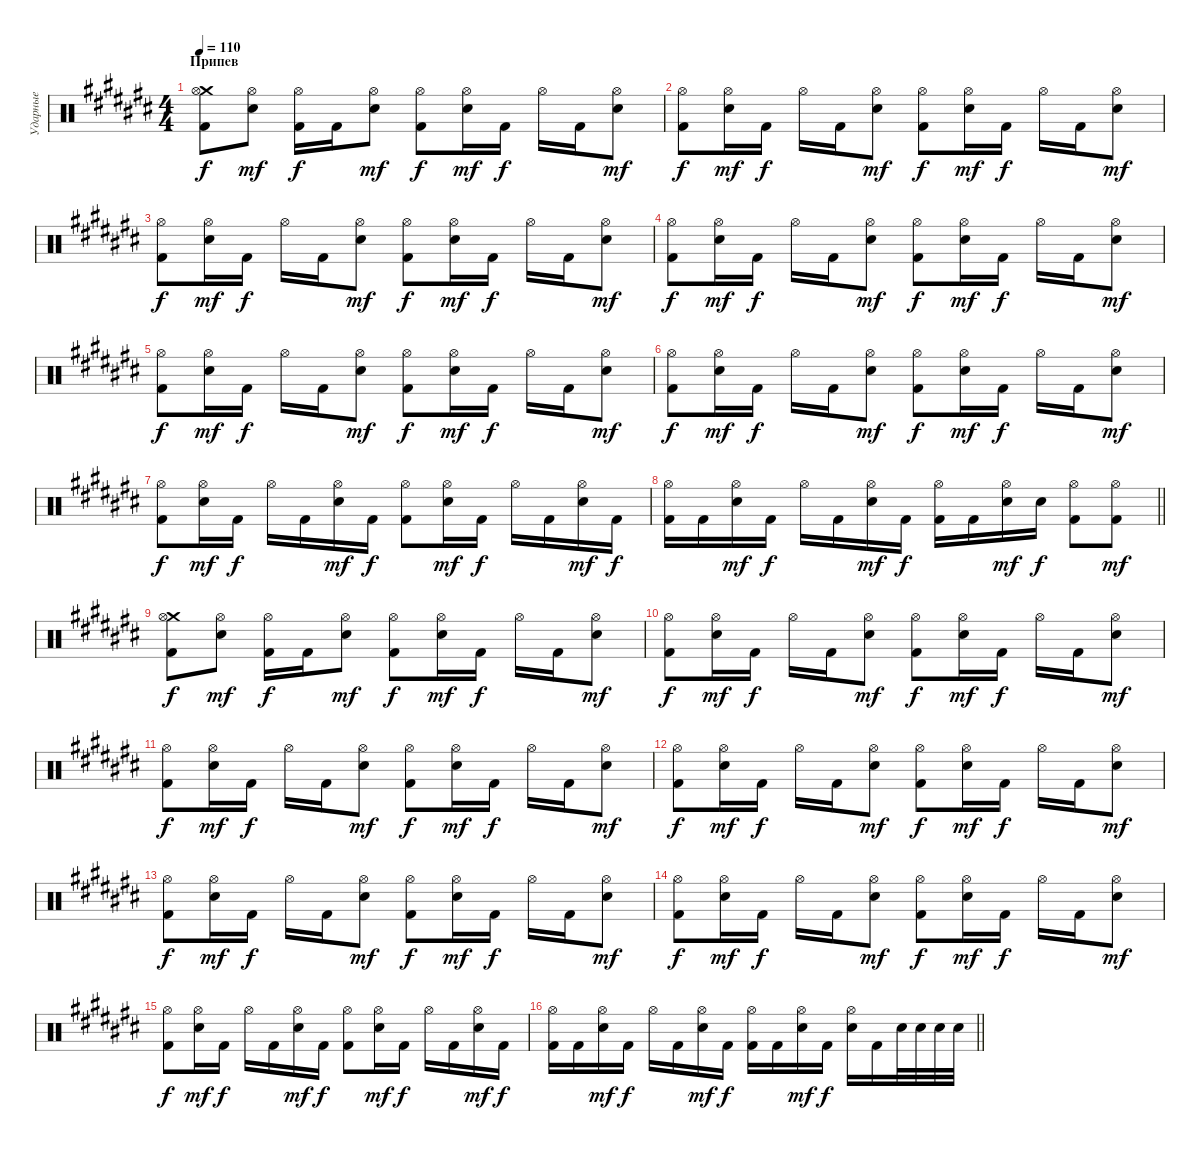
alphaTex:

\track ("Ударные" "Ударные") {instrument percussion}
\staff {score}
\articulation defaults
\ts (4 4)
\section ("" "Припев")
\tempo 110
\clef neutral
\ks a#minor
("Crash medium (hit)" "Kick (hit) 2" "Hi-Hat (open)").8{dy f} ("Electric Snare (hit)" "Hi-Hat (open)").8{dy mf} ("Kick (hit) 2" "Hi-Hat (open)").16{dy f} "Kick (hit) 2".16 ("Electric Snare (hit)" "Hi-Hat (open)").8{dy mf} ("Kick (hit) 2" "Hi-Hat (open)").8{dy f} ("Electric Snare (hit)" "Hi-Hat (open)").16{dy mf} "Kick (hit) 2".16{dy f} "Hi-Hat (open)".16 "Kick (hit) 2".16 ("Electric Snare (hit)" "Hi-Hat (open)").8{dy mf} |
("Kick (hit) 2" "Hi-Hat (open)").8{dy f} ("Electric Snare (hit)" "Hi-Hat (open)").16{dy mf} "Kick (hit) 2".16{dy f} "Hi-Hat (open)".16 "Kick (hit) 2".16 ("Electric Snare (hit)" "Hi-Hat (open)").8{dy mf} ("Kick (hit) 2" "Hi-Hat (open)").8{dy f} ("Electric Snare (hit)" "Hi-Hat (open)").16{dy mf} "Kick (hit) 2".16{dy f} "Hi-Hat (open)".16 "Kick (hit) 2".16 ("Electric Snare (hit)" "Hi-Hat (open)").8{dy mf} |
("Kick (hit) 2" "Hi-Hat (open)").8{dy f} ("Electric Snare (hit)" "Hi-Hat (open)").16{dy mf} "Kick (hit) 2".16{dy f} "Hi-Hat (open)".16 "Kick (hit) 2".16 ("Electric Snare (hit)" "Hi-Hat (open)").8{dy mf} ("Kick (hit) 2" "Hi-Hat (open)").8{dy f} ("Electric Snare (hit)" "Hi-Hat (open)").16{dy mf} "Kick (hit) 2".16{dy f} "Hi-Hat (open)".16 "Kick (hit) 2".16 ("Electric Snare (hit)" "Hi-Hat (open)").8{dy mf} |
("Kick (hit) 2" "Hi-Hat (open)").8{dy f} ("Electric Snare (hit)" "Hi-Hat (open)").16{dy mf} "Kick (hit) 2".16{dy f} "Hi-Hat (open)".16 "Kick (hit) 2".16 ("Electric Snare (hit)" "Hi-Hat (open)").8{dy mf} ("Kick (hit) 2" "Hi-Hat (open)").8{dy f} ("Electric Snare (hit)" "Hi-Hat (open)").16{dy mf} "Kick (hit) 2".16{dy f} "Hi-Hat (open)".16 "Kick (hit) 2".16 ("Electric Snare (hit)" "Hi-Hat (open)").8{dy mf} |
("Kick (hit) 2" "Hi-Hat (open)").8{dy f} ("Electric Snare (hit)" "Hi-Hat (open)").16{dy mf} "Kick (hit) 2".16{dy f} "Hi-Hat (open)".16 "Kick (hit) 2".16 ("Electric Snare (hit)" "Hi-Hat (open)").8{dy mf} ("Kick (hit) 2" "Hi-Hat (open)").8{dy f} ("Electric Snare (hit)" "Hi-Hat (open)").16{dy mf} "Kick (hit) 2".16{dy f} "Hi-Hat (open)".16 "Kick (hit) 2".16 ("Electric Snare (hit)" "Hi-Hat (open)").8{dy mf} |
("Kick (hit) 2" "Hi-Hat (open)").8{dy f} ("Electric Snare (hit)" "Hi-Hat (open)").16{dy mf} "Kick (hit) 2".16{dy f} "Hi-Hat (open)".16 "Kick (hit) 2".16 ("Electric Snare (hit)" "Hi-Hat (open)").8{dy mf} ("Kick (hit) 2" "Hi-Hat (open)").8{dy f} ("Electric Snare (hit)" "Hi-Hat (open)").16{dy mf} "Kick (hit) 2".16{dy f} "Hi-Hat (open)".16 "Kick (hit) 2".16 ("Electric Snare (hit)" "Hi-Hat (open)").8{dy mf} |
("Kick (hit) 2" "Hi-Hat (open)").8{dy f} ("Electric Snare (hit)" "Hi-Hat (open)").16{dy mf} "Kick (hit) 2".16{dy f} "Hi-Hat (open)".16 "Kick (hit) 2".16 ("Electric Snare (hit)" "Hi-Hat (open)").16{dy mf} "Kick (hit) 2".16{dy f} ("Kick (hit) 2" "Hi-Hat (open)").8 ("Electric Snare (hit)" "Hi-Hat (open)").16{dy mf} "Kick (hit) 2".16{dy f} "Hi-Hat (open)".16 "Kick (hit) 2".16 ("Electric Snare (hit)" "Hi-Hat (open)").16{dy mf} "Kick (hit) 2".16{dy f} |
\barLineRight lightlight
("Kick (hit) 2" "Hi-Hat (open)").16 "Kick (hit) 2".16 ("Electric Snare (hit)" "Hi-Hat (open)").16{dy mf} "Kick (hit) 2".16{dy f} "Hi-Hat (open)".16 "Kick (hit) 2".16 ("Electric Snare (hit)" "Hi-Hat (open)").16{dy mf} "Kick (hit) 2".16{dy f} ("Kick (hit) 2" "Hi-Hat (open)").16 "Kick (hit) 2".16 ("Electric Snare (hit)" "Hi-Hat (open)").16{dy mf} "Electric Snare (hit)".16{dy f} ("Kick (hit) 2" "Hi-Hat (open)").8 ("Kick (hit) 2" "Hi-Hat (open)").8{dy mf} |
("Crash medium (hit)" "Kick (hit) 2" "Hi-Hat (open)").8{dy f} ("Electric Snare (hit)" "Hi-Hat (open)").8{dy mf} ("Kick (hit) 2" "Hi-Hat (open)").16{dy f} "Kick (hit) 2".16 ("Electric Snare (hit)" "Hi-Hat (open)").8{dy mf} ("Kick (hit) 2" "Hi-Hat (open)").8{dy f} ("Electric Snare (hit)" "Hi-Hat (open)").16{dy mf} "Kick (hit) 2".16{dy f} "Hi-Hat (open)".16 "Kick (hit) 2".16 ("Electric Snare (hit)" "Hi-Hat (open)").8{dy mf} |
("Kick (hit) 2" "Hi-Hat (open)").8{dy f} ("Electric Snare (hit)" "Hi-Hat (open)").16{dy mf} "Kick (hit) 2".16{dy f} "Hi-Hat (open)".16 "Kick (hit) 2".16 ("Electric Snare (hit)" "Hi-Hat (open)").8{dy mf} ("Kick (hit) 2" "Hi-Hat (open)").8{dy f} ("Electric Snare (hit)" "Hi-Hat (open)").16{dy mf} "Kick (hit) 2".16{dy f} "Hi-Hat (open)".16 "Kick (hit) 2".16 ("Electric Snare (hit)" "Hi-Hat (open)").8{dy mf} |
("Kick (hit) 2" "Hi-Hat (open)").8{dy f} ("Electric Snare (hit)" "Hi-Hat (open)").16{dy mf} "Kick (hit) 2".16{dy f} "Hi-Hat (open)".16 "Kick (hit) 2".16 ("Electric Snare (hit)" "Hi-Hat (open)").8{dy mf} ("Kick (hit) 2" "Hi-Hat (open)").8{dy f} ("Electric Snare (hit)" "Hi-Hat (open)").16{dy mf} "Kick (hit) 2".16{dy f} "Hi-Hat (open)".16 "Kick (hit) 2".16 ("Electric Snare (hit)" "Hi-Hat (open)").8{dy mf} |
("Kick (hit) 2" "Hi-Hat (open)").8{dy f} ("Electric Snare (hit)" "Hi-Hat (open)").16{dy mf} "Kick (hit) 2".16{dy f} "Hi-Hat (open)".16 "Kick (hit) 2".16 ("Electric Snare (hit)" "Hi-Hat (open)").8{dy mf} ("Kick (hit) 2" "Hi-Hat (open)").8{dy f} ("Electric Snare (hit)" "Hi-Hat (open)").16{dy mf} "Kick (hit) 2".16{dy f} "Hi-Hat (open)".16 "Kick (hit) 2".16 ("Electric Snare (hit)" "Hi-Hat (open)").8{dy mf} |
("Kick (hit) 2" "Hi-Hat (open)").8{dy f} ("Electric Snare (hit)" "Hi-Hat (open)").16{dy mf} "Kick (hit) 2".16{dy f} "Hi-Hat (open)".16 "Kick (hit) 2".16 ("Electric Snare (hit)" "Hi-Hat (open)").8{dy mf} ("Kick (hit) 2" "Hi-Hat (open)").8{dy f} ("Electric Snare (hit)" "Hi-Hat (open)").16{dy mf} "Kick (hit) 2".16{dy f} "Hi-Hat (open)".16 "Kick (hit) 2".16 ("Electric Snare (hit)" "Hi-Hat (open)").8{dy mf} |
("Kick (hit) 2" "Hi-Hat (open)").8{dy f} ("Electric Snare (hit)" "Hi-Hat (open)").16{dy mf} "Kick (hit) 2".16{dy f} "Hi-Hat (open)".16 "Kick (hit) 2".16 ("Electric Snare (hit)" "Hi-Hat (open)").8{dy mf} ("Kick (hit) 2" "Hi-Hat (open)").8{dy f} ("Electric Snare (hit)" "Hi-Hat (open)").16{dy mf} "Kick (hit) 2".16{dy f} "Hi-Hat (open)".16 "Kick (hit) 2".16 ("Electric Snare (hit)" "Hi-Hat (open)").8{dy mf} |
("Kick (hit) 2" "Hi-Hat (open)").8{dy f} ("Electric Snare (hit)" "Hi-Hat (open)").16{dy mf} "Kick (hit) 2".16{dy f} "Hi-Hat (open)".16 "Kick (hit) 2".16 ("Electric Snare (hit)" "Hi-Hat (open)").16{dy mf} "Kick (hit) 2".16{dy f} ("Kick (hit) 2" "Hi-Hat (open)").8 ("Electric Snare (hit)" "Hi-Hat (open)").16{dy mf} "Kick (hit) 2".16{dy f} "Hi-Hat (open)".16 "Kick (hit) 2".16 ("Electric Snare (hit)" "Hi-Hat (open)").16{dy mf} "Kick (hit) 2".16{dy f} |
\barLineRight lightlight
("Kick (hit) 2" "Hi-Hat (open)").16 "Kick (hit) 2".16 ("Electric Snare (hit)" "Hi-Hat (open)").16{dy mf} "Kick (hit) 2".16{dy f} "Hi-Hat (open)".16 "Kick (hit) 2".16 ("Electric Snare (hit)" "Hi-Hat (open)").16{dy mf} "Kick (hit) 2".16{dy f} ("Kick (hit) 2" "Hi-Hat (open)").16 "Kick (hit) 2".16 ("Electric Snare (hit)" "Hi-Hat (open)").16{dy mf} "Kick (hit) 2".16{dy f} ("Electric Snare (hit)" "Hi-Hat (open)").16 "Kick (hit) 2".16 "Electric Snare (hit)".32 "Electric Snare (hit)".32 "Electric Snare (hit)".32 "Electric Snare (hit)".32
